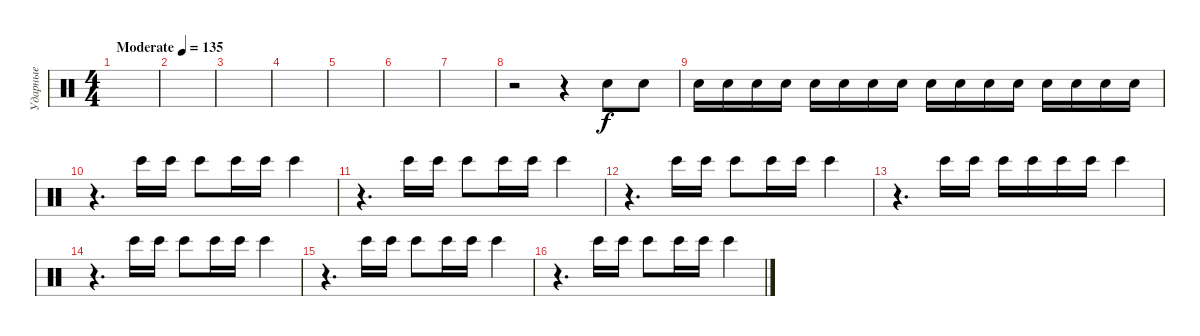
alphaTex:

\track ("Ударные" "Ударные") {instrument percussion}
\staff {score}
\articulation defaults
\ts (4 4)
\tempo (135 "Moderate")
\clef neutral
\ks c
|
|
|
|
|
|
|
r.2 r.4 "Electric Snare (hit)".8 "Electric Snare (hit)".8 |
"Electric Snare (hit)".16 "Electric Snare (hit)".16 "Electric Snare (hit)".16 "Electric Snare (hit)".16 "Electric Snare (hit)".16 "Electric Snare (hit)".16 "Electric Snare (hit)".16 "Electric Snare (hit)".16 "Electric Snare (hit)".16 "Electric Snare (hit)".16 "Electric Snare (hit)".16 "Electric Snare (hit)".16 "Electric Snare (hit)".16 "Electric Snare (hit)".16 "Electric Snare (hit)".16 "Electric Snare (hit)".16 |
r.4{d} "Bongo High (hit)".16 "Bongo High (hit)".16 "Bongo High (hit)".8 "Bongo High (hit)".16 "Bongo High (hit)".16 "Bongo High (hit)".4 |
r.4{d} "Bongo High (hit)".16 "Bongo High (hit)".16 "Bongo High (hit)".8 "Bongo High (hit)".16 "Bongo High (hit)".16 "Bongo High (hit)".4 |
r.4{d} "Bongo High (hit)".16 "Bongo High (hit)".16 "Bongo High (hit)".8 "Bongo High (hit)".16 "Bongo High (hit)".16 "Bongo High (hit)".4 |
r.4{d} "Bongo High (hit)".16 "Bongo High (hit)".16 "Bongo High (hit)".16 "Bongo High (hit)".16 "Bongo High (hit)".16 "Bongo High (hit)".16 "Bongo High (hit)".4 |
r.4{d} "Bongo High (hit)".16 "Bongo High (hit)".16 "Bongo High (hit)".8 "Bongo High (hit)".16 "Bongo High (hit)".16 "Bongo High (hit)".4 |
r.4{d} "Bongo High (hit)".16 "Bongo High (hit)".16 "Bongo High (hit)".8 "Bongo High (hit)".16 "Bongo High (hit)".16 "Bongo High (hit)".4 |
r.4{d} "Bongo High (hit)".16 "Bongo High (hit)".16 "Bongo High (hit)".8 "Bongo High (hit)".16 "Bongo High (hit)".16 "Bongo High (hit)".4
